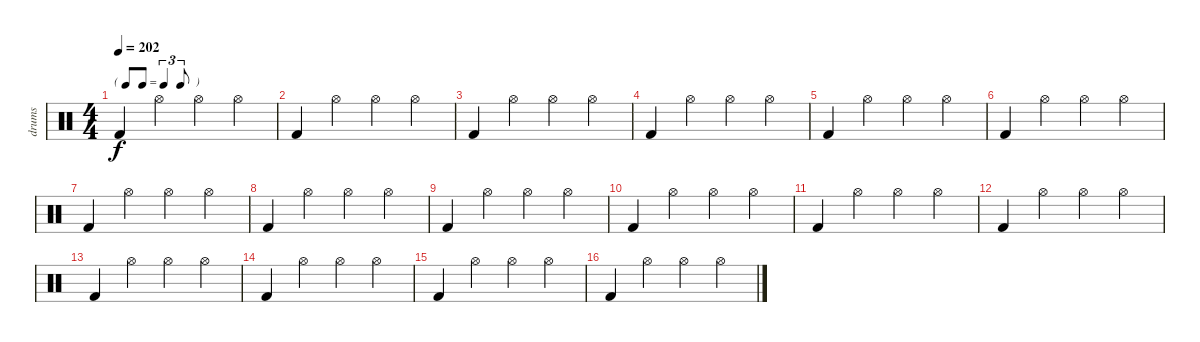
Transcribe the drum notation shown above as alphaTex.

\track ("drums" "drums") {instrument percussion}
\staff {score}
\articulation defaults
\ts (4 4)
\tf triplet8th
\tempo 202
\clef neutral
\ks c "Kick (hit) 2".4{dy f} "Hi-Hat (open)".4 "Hi-Hat (open)".4 "Hi-Hat (open)".4
|
"Kick (hit) 2".4 "Hi-Hat (open)".4 "Hi-Hat (open)".4 "Hi-Hat (open)".4 |
"Kick (hit) 2".4 "Hi-Hat (open)".4 "Hi-Hat (open)".4 "Hi-Hat (open)".4 |
"Kick (hit) 2".4 "Hi-Hat (open)".4 "Hi-Hat (open)".4 "Hi-Hat (open)".4 |
"Kick (hit) 2".4 "Hi-Hat (open)".4 "Hi-Hat (open)".4 "Hi-Hat (open)".4 |
"Kick (hit) 2".4 "Hi-Hat (open)".4 "Hi-Hat (open)".4 "Hi-Hat (open)".4 |
"Kick (hit) 2".4 "Hi-Hat (open)".4 "Hi-Hat (open)".4 "Hi-Hat (open)".4 |
"Kick (hit) 2".4 "Hi-Hat (open)".4 "Hi-Hat (open)".4 "Hi-Hat (open)".4 |
"Kick (hit) 2".4 "Hi-Hat (open)".4 "Hi-Hat (open)".4 "Hi-Hat (open)".4 |
"Kick (hit) 2".4 "Hi-Hat (open)".4 "Hi-Hat (open)".4 "Hi-Hat (open)".4 |
"Kick (hit) 2".4 "Hi-Hat (open)".4 "Hi-Hat (open)".4 "Hi-Hat (open)".4 |
"Kick (hit) 2".4 "Hi-Hat (open)".4 "Hi-Hat (open)".4 "Hi-Hat (open)".4 |
"Kick (hit) 2".4 "Hi-Hat (open)".4 "Hi-Hat (open)".4 "Hi-Hat (open)".4 |
"Kick (hit) 2".4 "Hi-Hat (open)".4 "Hi-Hat (open)".4 "Hi-Hat (open)".4 |
"Kick (hit) 2".4 "Hi-Hat (open)".4 "Hi-Hat (open)".4 "Hi-Hat (open)".4 |
"Kick (hit) 2".4 "Hi-Hat (open)".4 "Hi-Hat (open)".4 "Hi-Hat (open)".4
